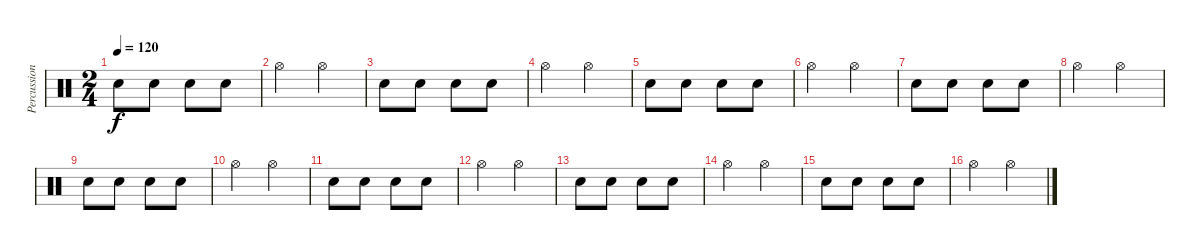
\track ("Percussion" "Percussion") {instrument percussion}
\staff {score}
\articulation defaults
\ts (2 4)
\tempo 120
\clef neutral
\ks c "Electric Snare (hit)".8{dy f} "Snare (hit) 2".8 "Electric Snare (hit)".8 "Snare (hit) 2".8
|
"Hi-Hat (open)".4 "Hi-Hat (open)".4 |
"Electric Snare (hit)".8 "Snare (hit) 2".8 "Electric Snare (hit)".8 "Snare (hit) 2".8 |
"Hi-Hat (open)".4 "Hi-Hat (open)".4 |
"Electric Snare (hit)".8 "Snare (hit) 2".8 "Electric Snare (hit)".8 "Snare (hit) 2".8 |
"Hi-Hat (open)".4 "Hi-Hat (open)".4 |
"Electric Snare (hit)".8 "Snare (hit) 2".8 "Electric Snare (hit)".8 "Snare (hit) 2".8 |
"Hi-Hat (open)".4 "Hi-Hat (open)".4 |
"Electric Snare (hit)".8 "Snare (hit) 2".8 "Electric Snare (hit)".8 "Snare (hit) 2".8 |
"Hi-Hat (open)".4 "Hi-Hat (open)".4 |
"Electric Snare (hit)".8 "Snare (hit) 2".8 "Electric Snare (hit)".8 "Snare (hit) 2".8 |
"Hi-Hat (open)".4 "Hi-Hat (open)".4 |
"Electric Snare (hit)".8 "Snare (hit) 2".8 "Electric Snare (hit)".8 "Snare (hit) 2".8 |
"Hi-Hat (open)".4 "Hi-Hat (open)".4 |
"Electric Snare (hit)".8 "Snare (hit) 2".8 "Electric Snare (hit)".8 "Snare (hit) 2".8 |
"Hi-Hat (open)".4 "Hi-Hat (open)".4
